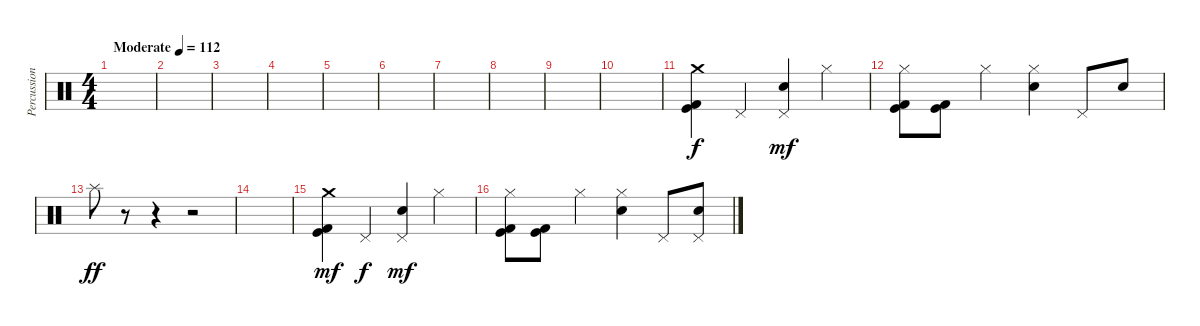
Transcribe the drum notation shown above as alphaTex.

\track ("Percussion" "Percussion") {instrument percussion}
\staff {score}
\articulation defaults
\ts (4 4)
\tempo (112 "Moderate")
\clef neutral
\ks c
|
|
|
|
|
|
|
|
|
|
("Crash medium (hit)" "Kick (hit)" "Kick (hit) 2").4 "Pedal Hi-Hat (hit)".4{dy f} ("Pedal Hi-Hat (hit)" "Electric Snare (hit)").4{dy mf} "Hi-Hat (closed)".4 |
("Hi-Hat (closed)" "Kick (hit)" "Kick (hit) 2").8 ("Kick (hit)" "Kick (hit) 2").8 "Hi-Hat (closed)".4 ("Hi-Hat (closed)" "Electric Snare (hit)").4 "Pedal Hi-Hat (hit)".8 "Electric Snare (hit)".8 |
"Splash (hit)".8{dy ff} r.8 r.4 r.2 |
|
("Crash medium (hit)" "Kick (hit)" "Kick (hit) 2").4{dy mf} "Pedal Hi-Hat (hit)".4{dy f} ("Pedal Hi-Hat (hit)" "Electric Snare (hit)").4{dy mf} "Hi-Hat (closed)".4 |
("Hi-Hat (closed)" "Kick (hit)" "Kick (hit) 2").8 ("Kick (hit)" "Kick (hit) 2").8 "Hi-Hat (closed)".4 ("Hi-Hat (closed)" "Electric Snare (hit)").4 "Pedal Hi-Hat (hit)".8 ("Pedal Hi-Hat (hit)" "Electric Snare (hit)").8
